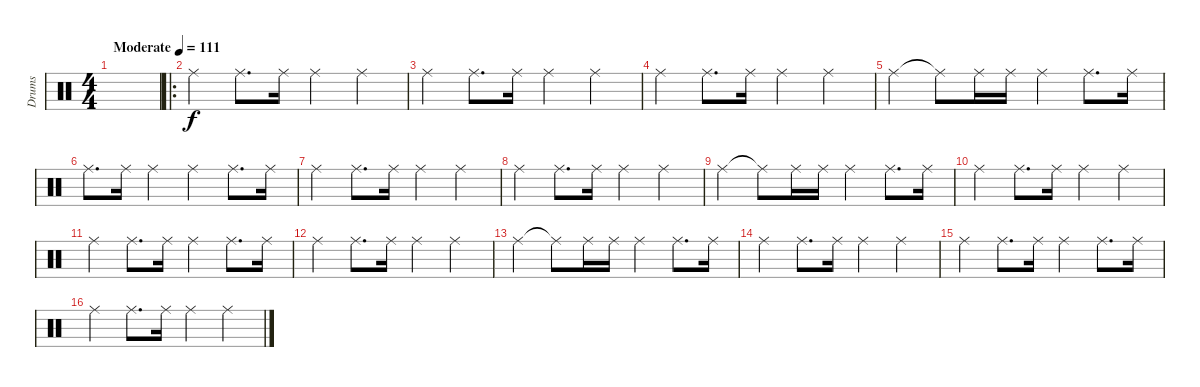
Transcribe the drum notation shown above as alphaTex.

\track ("Drums" "Drums") {instrument percussion}
\staff {score}
\articulation defaults
\ts (4 4)
\tempo (111 "Moderate")
\clef neutral
\ks c
|
\ro "Ride (middle)".4 "Ride (middle)".8{d} "Ride (middle)".16 "Ride (middle)".4 "Ride (middle)".4
|
"Ride (middle)".4 "Ride (middle)".8{d} "Ride (middle)".16 "Ride (middle)".4 "Ride (middle)".4 |
"Ride (middle)".4 "Ride (middle)".8{d} "Ride (middle)".16 "Ride (middle)".4 "Ride (middle)".4 |
"Ride (middle)".4 "Ride (middle)"{t}.8 "Ride (middle)".16 "Ride (middle)".16 "Ride (middle)".4 "Ride (middle)".8{d} "Ride (middle)".16 |
"Ride (middle)".8{d} "Ride (middle)".16 "Ride (middle)".4 "Ride (middle)".4 "Ride (middle)".8{d} "Ride (middle)".16 |
"Ride (middle)".4 "Ride (middle)".8{d} "Ride (middle)".16 "Ride (middle)".4 "Ride (middle)".4 |
"Ride (middle)".4 "Ride (middle)".8{d} "Ride (middle)".16 "Ride (middle)".4 "Ride (middle)".4 |
"Ride (middle)".4 "Ride (middle)"{t}.8 "Ride (middle)".16 "Ride (middle)".16 "Ride (middle)".4 "Ride (middle)".8{d} "Ride (middle)".16 |
"Ride (middle)".4 "Ride (middle)".8{d} "Ride (middle)".16 "Ride (middle)".4 "Ride (middle)".4 |
"Ride (middle)".4 "Ride (middle)".8{d} "Ride (middle)".16 "Ride (middle)".4 "Ride (middle)".8{d} "Ride (middle)".16 |
"Ride (middle)".4 "Ride (middle)".8{d} "Ride (middle)".16 "Ride (middle)".4 "Ride (middle)".4 |
"Ride (middle)".4 "Ride (middle)"{t}.8 "Ride (middle)".16 "Ride (middle)".16 "Ride (middle)".4 "Ride (middle)".8{d} "Ride (middle)".16 |
"Ride (middle)".4 "Ride (middle)".8{d} "Ride (middle)".16 "Ride (middle)".4 "Ride (middle)".4 |
"Ride (middle)".4 "Ride (middle)".8{d} "Ride (middle)".16 "Ride (middle)".4 "Ride (middle)".8{d} "Ride (middle)".16 |
"Ride (middle)".4 "Ride (middle)".8{d} "Ride (middle)".16 "Ride (middle)".4 "Ride (middle)".4
